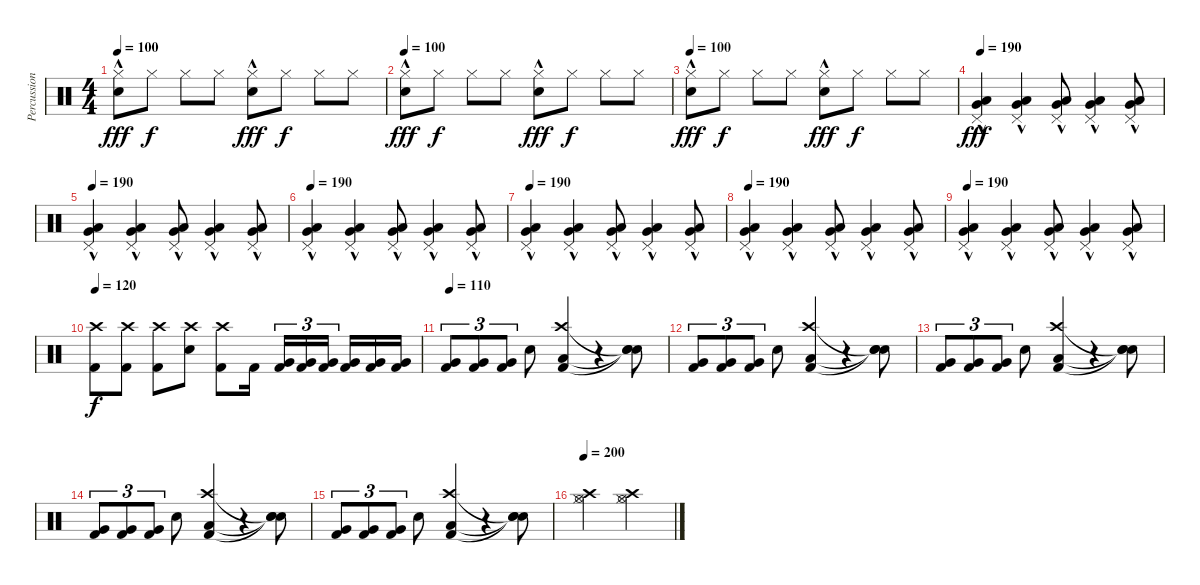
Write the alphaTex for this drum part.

\track ("Percussion" "Percussion") {instrument percussion}
\staff {score}
\articulation defaults
\ts (4 4)
\tempo 100
\clef neutral
\ks c
("Hi-Hat (closed)" "Electric Snare (hit)"{hac}).8{dy fff} "Hi-Hat (closed)".8{dy f} "Hi-Hat (closed)".8 "Hi-Hat (closed)".8 ("Hi-Hat (closed)" "Electric Snare (hit)"{hac}).8{dy fff} "Hi-Hat (closed)".8{dy f} "Hi-Hat (closed)".8 "Hi-Hat (closed)".8 |
\tempo 100
("Hi-Hat (closed)" "Electric Snare (hit)"{hac}).8{dy fff} "Hi-Hat (closed)".8{dy f} "Hi-Hat (closed)".8 "Hi-Hat (closed)".8 ("Hi-Hat (closed)" "Electric Snare (hit)"{hac}).8{dy fff} "Hi-Hat (closed)".8{dy f} "Hi-Hat (closed)".8 "Hi-Hat (closed)".8 |
\tempo 100
("Hi-Hat (closed)" "Electric Snare (hit)"{hac}).8{dy fff} "Hi-Hat (closed)".8{dy f} "Hi-Hat (closed)".8 "Hi-Hat (closed)".8 ("Hi-Hat (closed)" "Electric Snare (hit)"{hac}).8{dy fff} "Hi-Hat (closed)".8{dy f} "Hi-Hat (closed)".8 "Hi-Hat (closed)".8 |
\tempo 190
("Pedal Hi-Hat (hit)" "Very Low Tom (hit)"{hac} "Low Tom (hit)"{hac}).4{dy fff} ("Pedal Hi-Hat (hit)" "Very Low Tom (hit)"{hac} "Low Tom (hit)"{hac}).4 ("Pedal Hi-Hat (hit)" "Very Low Tom (hit)"{hac} "Low Tom (hit)"{hac}).8 ("Pedal Hi-Hat (hit)" "Very Low Tom (hit)"{hac} "Low Tom (hit)"{hac}).4 ("Pedal Hi-Hat (hit)" "Very Low Tom (hit)"{hac} "Low Tom (hit)"{hac}).8 |
\tempo 190
("Pedal Hi-Hat (hit)" "Very Low Tom (hit)"{hac} "Low Tom (hit)"{hac}).4 ("Pedal Hi-Hat (hit)" "Very Low Tom (hit)"{hac} "Low Tom (hit)"{hac}).4 ("Pedal Hi-Hat (hit)" "Very Low Tom (hit)"{hac} "Low Tom (hit)"{hac}).8 ("Pedal Hi-Hat (hit)" "Very Low Tom (hit)"{hac} "Low Tom (hit)"{hac}).4 ("Pedal Hi-Hat (hit)" "Very Low Tom (hit)"{hac} "Low Tom (hit)"{hac}).8 |
\tempo 190
("Pedal Hi-Hat (hit)" "Very Low Tom (hit)"{hac} "Low Tom (hit)"{hac}).4 ("Pedal Hi-Hat (hit)" "Very Low Tom (hit)"{hac} "Low Tom (hit)"{hac}).4 ("Pedal Hi-Hat (hit)" "Very Low Tom (hit)"{hac} "Low Tom (hit)"{hac}).8 ("Pedal Hi-Hat (hit)" "Very Low Tom (hit)"{hac} "Low Tom (hit)"{hac}).4 ("Pedal Hi-Hat (hit)" "Very Low Tom (hit)"{hac} "Low Tom (hit)"{hac}).8 |
\tempo 190
("Pedal Hi-Hat (hit)" "Very Low Tom (hit)"{hac} "Low Tom (hit)"{hac}).4 ("Pedal Hi-Hat (hit)" "Very Low Tom (hit)"{hac} "Low Tom (hit)"{hac}).4 ("Pedal Hi-Hat (hit)" "Very Low Tom (hit)"{hac} "Low Tom (hit)"{hac}).8 ("Pedal Hi-Hat (hit)" "Very Low Tom (hit)"{hac} "Low Tom (hit)"{hac}).4 ("Pedal Hi-Hat (hit)" "Very Low Tom (hit)"{hac} "Low Tom (hit)"{hac}).8 |
\tempo 190
("Pedal Hi-Hat (hit)" "Very Low Tom (hit)"{hac} "Low Tom (hit)"{hac}).4 ("Pedal Hi-Hat (hit)" "Very Low Tom (hit)"{hac} "Low Tom (hit)"{hac}).4 ("Pedal Hi-Hat (hit)" "Very Low Tom (hit)"{hac} "Low Tom (hit)"{hac}).8 ("Pedal Hi-Hat (hit)" "Very Low Tom (hit)"{hac} "Low Tom (hit)"{hac}).4 ("Pedal Hi-Hat (hit)" "Very Low Tom (hit)"{hac} "Low Tom (hit)"{hac}).8 |
\tempo 190
("Pedal Hi-Hat (hit)" "Very Low Tom (hit)"{hac} "Low Tom (hit)"{hac}).4 ("Pedal Hi-Hat (hit)" "Very Low Tom (hit)"{hac} "Low Tom (hit)"{hac}).4 ("Pedal Hi-Hat (hit)" "Very Low Tom (hit)"{hac} "Low Tom (hit)"{hac}).8 ("Pedal Hi-Hat (hit)" "Very Low Tom (hit)"{hac} "Low Tom (hit)"{hac}).4 ("Pedal Hi-Hat (hit)" "Very Low Tom (hit)"{hac} "Low Tom (hit)"{hac}).8 |
\tempo 120
("Crash high (hit)" "Kick (hit) 2").8{dy f} ("Crash high (hit)" "Kick (hit) 2").8 ("Crash high (hit)" "Kick (hit) 2").8 ("Crash high (hit)" "Electric Snare (hit)").8 ("Crash high (hit)" "Kick (hit) 2").8 "Kick (hit) 2".16{beam splitsecondary} ("Very Low Tom (hit)" "Kick (hit) 2").16{tu (3 2)} ("Very Low Tom (hit)" "Kick (hit) 2").16{tu (3 2)} ("Very Low Tom (hit)" "Kick (hit) 2").16{tu (3 2) beam splitsecondary} ("Very Low Tom (hit)" "Kick (hit) 2").16 ("Very Low Tom (hit)" "Kick (hit) 2").16 ("Very Low Tom (hit)" "Kick (hit) 2").16 |
\tempo 110
("Very Low Tom (hit)" "Kick (hit) 2").8{tu (3 2)} ("Very Low Tom (hit)" "Kick (hit) 2").8{tu (3 2)} ("Very Low Tom (hit)" "Kick (hit) 2").8{tu (3 2)} "Electric Snare (hit)".8 ("Crash high (hit)" "Low Tom (hit)" "Kick (hit) 2").4 r.4 ("Snare (hit)"{t} "Snare (hit)"{t} "Snare (hit)"{t}).8 |
("Very Low Tom (hit)" "Kick (hit) 2").8{tu (3 2)} ("Very Low Tom (hit)" "Kick (hit) 2").8{tu (3 2)} ("Very Low Tom (hit)" "Kick (hit) 2").8{tu (3 2)} "Electric Snare (hit)".8 ("Crash high (hit)" "Low Tom (hit)" "Kick (hit) 2").4 r.4 ("Snare (hit)"{t} "Snare (hit)"{t} "Snare (hit)"{t}).8 |
("Very Low Tom (hit)" "Kick (hit) 2").8{tu (3 2)} ("Very Low Tom (hit)" "Kick (hit) 2").8{tu (3 2)} ("Very Low Tom (hit)" "Kick (hit) 2").8{tu (3 2)} "Electric Snare (hit)".8 ("Crash high (hit)" "Low Tom (hit)" "Kick (hit) 2").4 r.4 ("Snare (hit)"{t} "Snare (hit)"{t} "Snare (hit)"{t}).8 |
("Very Low Tom (hit)" "Kick (hit) 2").8{tu (3 2)} ("Very Low Tom (hit)" "Kick (hit) 2").8{tu (3 2)} ("Very Low Tom (hit)" "Kick (hit) 2").8{tu (3 2)} "Electric Snare (hit)".8 ("Crash high (hit)" "Low Tom (hit)" "Kick (hit) 2").4 r.4 ("Snare (hit)"{t} "Snare (hit)"{t} "Snare (hit)"{t}).8 |
("Very Low Tom (hit)" "Kick (hit) 2").8{tu (3 2)} ("Very Low Tom (hit)" "Kick (hit) 2").8{tu (3 2)} ("Very Low Tom (hit)" "Kick (hit) 2").8{tu (3 2)} "Electric Snare (hit)".8 ("Crash high (hit)" "Low Tom (hit)" "Kick (hit) 2").4 r.4 ("Snare (hit)"{t} "Snare (hit)"{t} "Snare (hit)"{t}).8 |
\tempo 200
("Hi-Hat (closed)" "Hi-Hat (open)" "Crash high (hit)").2 ("Hi-Hat (closed)" "Hi-Hat (open)" "Crash high (hit)").2
